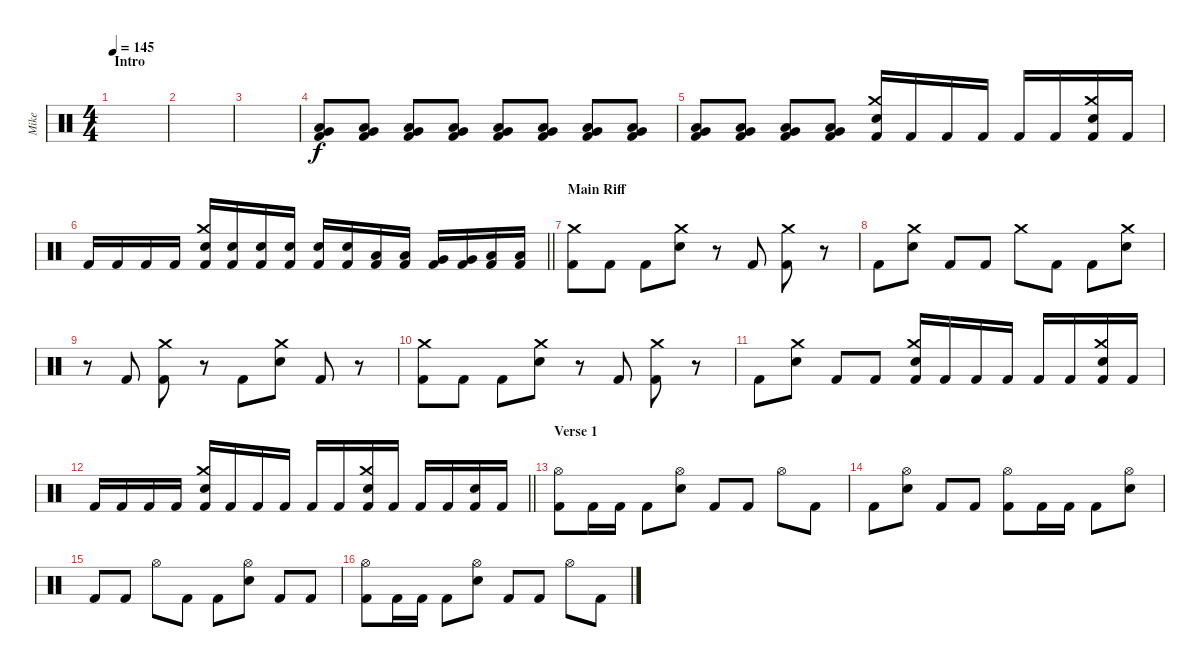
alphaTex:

\track ("Mike" "Mike") {instrument percussion}
\staff {score}
\articulation defaults
\ts (4 4)
\section ("" "Intro")
\tempo 145
\clef neutral
\ks c
|
|
|
("Very Low Tom (hit)" "Low Floor Tom (hit)" "Kick (hit) 2").8 ("Very Low Tom (hit)" "Low Floor Tom (hit)" "Kick (hit) 2").8 ("Very Low Tom (hit)" "Low Floor Tom (hit)" "Kick (hit) 2").8 ("Very Low Tom (hit)" "Low Floor Tom (hit)" "Kick (hit) 2").8 ("Very Low Tom (hit)" "Low Floor Tom (hit)" "Kick (hit) 2").8 ("Very Low Tom (hit)" "Low Floor Tom (hit)" "Kick (hit) 2").8 ("Very Low Tom (hit)" "Low Floor Tom (hit)" "Kick (hit) 2").8 ("Very Low Tom (hit)" "Low Floor Tom (hit)" "Kick (hit) 2").8 |
("Very Low Tom (hit)" "Low Floor Tom (hit)" "Kick (hit) 2").8 ("Very Low Tom (hit)" "Low Floor Tom (hit)" "Kick (hit) 2").8 ("Very Low Tom (hit)" "Low Floor Tom (hit)" "Kick (hit) 2").8 ("Very Low Tom (hit)" "Low Floor Tom (hit)" "Kick (hit) 2").8 ("Crash medium (hit)" "Snare (hit) 2" "Kick (hit) 2").16 "Kick (hit) 2".16 "Kick (hit) 2".16 "Kick (hit) 2".16 "Kick (hit) 2".16 "Kick (hit) 2".16 ("Crash medium (hit)" "Snare (hit) 2" "Kick (hit) 2").16 "Kick (hit) 2".16 |
\barLineRight lightlight "Kick (hit) 2".16 "Kick (hit) 2".16 "Kick (hit) 2".16 "Kick (hit) 2".16
("Crash medium (hit)" "Snare (hit) 2" "Kick (hit) 2").16 ("Snare (hit) 2" "Kick (hit) 2").16 ("Snare (hit) 2" "Kick (hit) 2").16 ("Snare (hit) 2" "Kick (hit) 2").16 ("Snare (hit) 2" "Kick (hit) 2").16 ("Snare (hit) 2" "Kick (hit) 2").16 ("Low Tom (hit)" "Kick (hit) 2").16 ("Low Tom (hit)" "Kick (hit) 2").16 ("Very Low Tom (hit)" "Kick (hit) 2").16 ("Very Low Tom (hit)" "Kick (hit) 2").16 ("Low Floor Tom (hit)" "Kick (hit) 2").16 ("Low Floor Tom (hit)" "Kick (hit) 2").16 |
\section ("" "Main Riff")
("Crash medium (hit)" "Kick (hit) 2").8 "Kick (hit) 2".8 "Kick (hit) 2".8 ("Crash medium (hit)" "Snare (hit) 2").8 r.8 "Kick (hit) 2".8 ("Crash medium (hit)" "Kick (hit) 2").8 r.8 |
"Kick (hit) 2".8 ("Crash medium (hit)" "Snare (hit) 2").8 "Kick (hit) 2".8 "Kick (hit) 2".8 "Crash medium (hit)".8 "Kick (hit) 2".8 "Kick (hit) 2".8 ("Crash medium (hit)" "Snare (hit) 2").8 |
r.8 "Kick (hit) 2".8 ("Crash medium (hit)" "Kick (hit) 2").8 r.8 "Kick (hit) 2".8 ("Crash medium (hit)" "Snare (hit) 2").8 "Kick (hit) 2".8 r.8 |
("Crash medium (hit)" "Kick (hit) 2").8 "Kick (hit) 2".8 "Kick (hit) 2".8 ("Crash medium (hit)" "Snare (hit) 2").8 r.8 "Kick (hit) 2".8 ("Crash medium (hit)" "Kick (hit) 2").8 r.8 |
"Kick (hit) 2".8 ("Crash medium (hit)" "Snare (hit) 2").8 "Kick (hit) 2".8 "Kick (hit) 2".8 ("Crash medium (hit)" "Snare (hit) 2" "Kick (hit) 2").16 "Kick (hit) 2".16 "Kick (hit) 2".16 "Kick (hit) 2".16 "Kick (hit) 2".16 "Kick (hit) 2".16 ("Crash medium (hit)" "Snare (hit) 2" "Kick (hit) 2").16 "Kick (hit) 2".16 |
\barLineRight lightlight "Kick (hit) 2".16 "Kick (hit) 2".16 "Kick (hit) 2".16 "Kick (hit) 2".16
("Crash medium (hit)" "Snare (hit) 2" "Kick (hit) 2").16 "Kick (hit) 2".16 "Kick (hit) 2".16 "Kick (hit) 2".16 "Kick (hit) 2".16 "Kick (hit) 2".16 ("Crash medium (hit)" "Snare (hit) 2" "Kick (hit) 2").16 "Kick (hit) 2".16 "Kick (hit) 2".16 "Kick (hit) 2".16 ("Snare (hit) 2" "Kick (hit) 2").16 "Kick (hit) 2".16 |
\section ("" "Verse 1")
("Hi-Hat (open)" "Kick (hit) 2").8 "Kick (hit) 2".16 "Kick (hit) 2".16 "Kick (hit) 2".8 ("Hi-Hat (open)" "Snare (hit) 2").8 "Kick (hit) 2".8 "Kick (hit) 2".8 "Hi-Hat (open)".8 "Kick (hit) 2".8 |
"Kick (hit) 2".8 ("Hi-Hat (open)" "Snare (hit) 2").8 "Kick (hit) 2".8 "Kick (hit) 2".8 ("Hi-Hat (open)" "Kick (hit) 2").8 "Kick (hit) 2".16 "Kick (hit) 2".16 "Kick (hit) 2".8 ("Hi-Hat (open)" "Snare (hit) 2").8 |
"Kick (hit) 2".8 "Kick (hit) 2".8 "Hi-Hat (open)".8 "Kick (hit) 2".8 "Kick (hit) 2".8 ("Hi-Hat (open)" "Snare (hit) 2").8 "Kick (hit) 2".8 "Kick (hit) 2".8 |
("Hi-Hat (open)" "Kick (hit) 2").8 "Kick (hit) 2".16 "Kick (hit) 2".16 "Kick (hit) 2".8 ("Hi-Hat (open)" "Snare (hit) 2").8 "Kick (hit) 2".8 "Kick (hit) 2".8 "Hi-Hat (open)".8 "Kick (hit) 2".8
